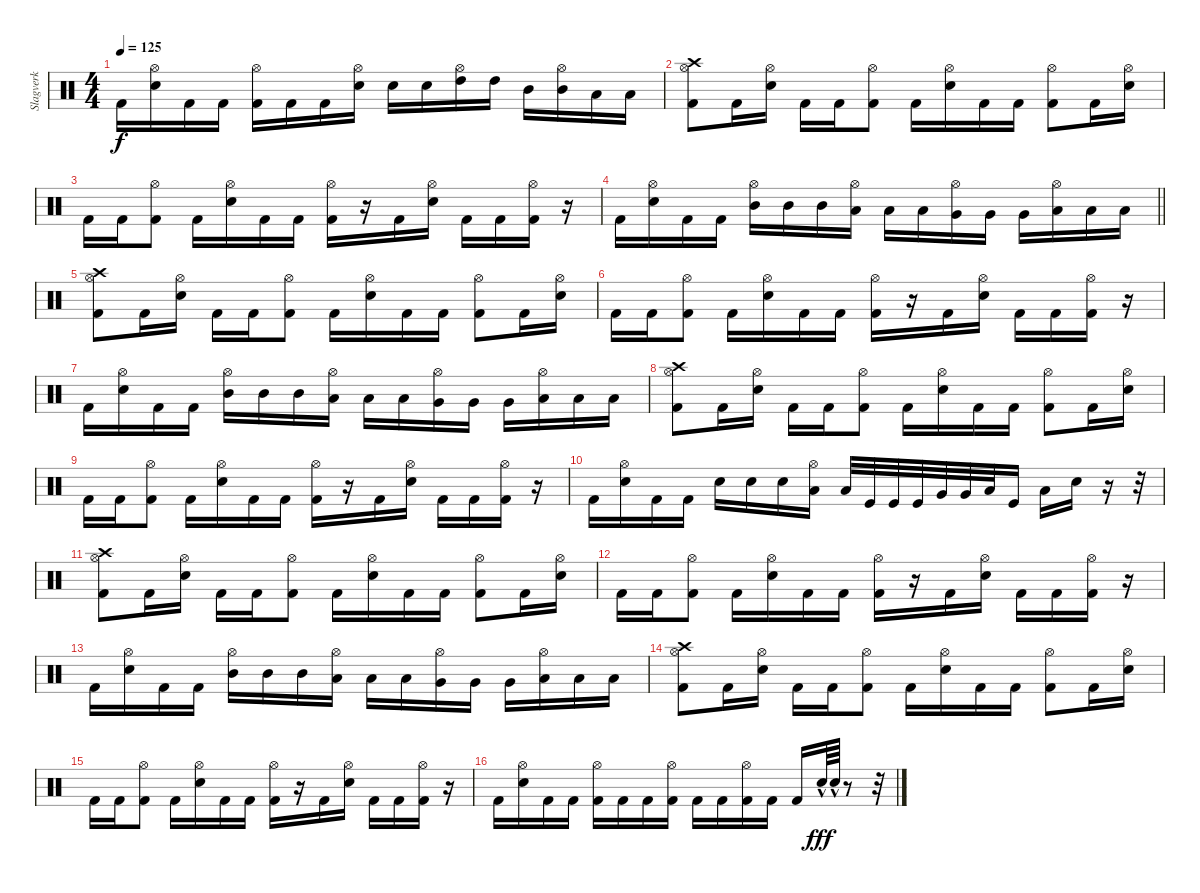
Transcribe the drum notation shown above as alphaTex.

\track ("Slagverk" "Slagverk") {instrument percussion}
\staff
\articulation defaults
\ts (4 4)
\tempo 125
\clef neutral
\ks c "Kick (hit) 2".16{dy f}
("Hi-Hat (open)" "Snare (hit) 2").16 "Kick (hit) 2".16 "Kick (hit) 2".16 ("Hi-Hat (open)" "Kick (hit) 2").16 "Kick (hit) 2".16 "Kick (hit) 2".16 ("Hi-Hat (open)" "Snare (hit) 2").16 "Snare (hit) 2".16 "Snare (hit) 2".16 ("Hi-Hat (open)" "High Tom (hit)").16 "High Tom (hit)".16 "Mid Tom (hit)".16 ("Hi-Hat (open)" "Mid Tom (hit)").16 "Low Tom (hit)".16 "Low Tom (hit)".16 |
("Hi-Hat (open)" "Kick (hit) 2" "Crash high (hit)").8 "Kick (hit) 2".16 ("Hi-Hat (open)" "Snare (hit) 2").16 "Kick (hit) 2".16 "Kick (hit) 2".16 ("Hi-Hat (open)" "Kick (hit) 2").8 "Kick (hit) 2".16 ("Hi-Hat (open)" "Snare (hit) 2").16 "Kick (hit) 2".16 "Kick (hit) 2".16 ("Hi-Hat (open)" "Kick (hit) 2").8 "Kick (hit) 2".16 ("Hi-Hat (open)" "Snare (hit) 2").16 |
"Kick (hit) 2".16 "Kick (hit) 2".16 ("Hi-Hat (open)" "Kick (hit) 2").8 "Kick (hit) 2".16 ("Hi-Hat (open)" "Snare (hit) 2").16 "Kick (hit) 2".16 "Kick (hit) 2".16 ("Hi-Hat (open)" "Kick (hit) 2").16 r.16 "Kick (hit) 2".16 ("Hi-Hat (open)" "Snare (hit) 2").16 "Kick (hit) 2".16 "Kick (hit) 2".16 ("Hi-Hat (open)" "Kick (hit) 2").16 r.16 |
\barLineRight lightlight "Kick (hit) 2".16
("Hi-Hat (open)" "Snare (hit) 2").16 "Kick (hit) 2".16 "Kick (hit) 2".16 ("Hi-Hat (open)" "Mid Tom (hit)").16 "Mid Tom (hit)".16 "Mid Tom (hit)".16 ("Hi-Hat (open)" "Low Tom (hit)").16 "Low Tom (hit)".16 "Low Tom (hit)".16 ("Hi-Hat (open)" "Very Low Tom (hit)").16 "Very Low Tom (hit)".16 "Very Low Tom (hit)".16 ("Hi-Hat (open)" "Low Floor Tom (hit)").16 "Low Floor Tom (hit)".16 "Low Floor Tom (hit)".16 |
("Hi-Hat (open)" "Kick (hit) 2" "Crash high (hit)").8 "Kick (hit) 2".16 ("Hi-Hat (open)" "Snare (hit) 2").16 "Kick (hit) 2".16 "Kick (hit) 2".16 ("Hi-Hat (open)" "Kick (hit) 2").8 "Kick (hit) 2".16 ("Hi-Hat (open)" "Snare (hit) 2").16 "Kick (hit) 2".16 "Kick (hit) 2".16 ("Hi-Hat (open)" "Kick (hit) 2").8 "Kick (hit) 2".16 ("Hi-Hat (open)" "Snare (hit) 2").16 |
"Kick (hit) 2".16 "Kick (hit) 2".16 ("Hi-Hat (open)" "Kick (hit) 2").8 "Kick (hit) 2".16 ("Hi-Hat (open)" "Snare (hit) 2").16 "Kick (hit) 2".16 "Kick (hit) 2".16 ("Hi-Hat (open)" "Kick (hit) 2").16 r.16 "Kick (hit) 2".16 ("Hi-Hat (open)" "Snare (hit) 2").16 "Kick (hit) 2".16 "Kick (hit) 2".16 ("Hi-Hat (open)" "Kick (hit) 2").16 r.16 |
"Kick (hit) 2".16 ("Hi-Hat (open)" "Snare (hit) 2").16 "Kick (hit) 2".16 "Kick (hit) 2".16 ("Hi-Hat (open)" "Mid Tom (hit)").16 "Mid Tom (hit)".16 "Mid Tom (hit)".16 ("Hi-Hat (open)" "Low Tom (hit)").16 "Low Tom (hit)".16 "Low Tom (hit)".16 ("Hi-Hat (open)" "Very Low Tom (hit)").16 "Very Low Tom (hit)".16 "Very Low Tom (hit)".16 ("Hi-Hat (open)" "Low Floor Tom (hit)").16 "Low Floor Tom (hit)".16 "Low Floor Tom (hit)".16 |
("Hi-Hat (open)" "Kick (hit) 2" "Crash high (hit)").8 "Kick (hit) 2".16 ("Hi-Hat (open)" "Snare (hit) 2").16 "Kick (hit) 2".16 "Kick (hit) 2".16 ("Hi-Hat (open)" "Kick (hit) 2").8 "Kick (hit) 2".16 ("Hi-Hat (open)" "Snare (hit) 2").16 "Kick (hit) 2".16 "Kick (hit) 2".16 ("Hi-Hat (open)" "Kick (hit) 2").8 "Kick (hit) 2".16 ("Hi-Hat (open)" "Snare (hit) 2").16 |
"Kick (hit) 2".16 "Kick (hit) 2".16 ("Hi-Hat (open)" "Kick (hit) 2").8 "Kick (hit) 2".16 ("Hi-Hat (open)" "Snare (hit) 2").16 "Kick (hit) 2".16 "Kick (hit) 2".16 ("Hi-Hat (open)" "Kick (hit) 2").16 r.16 "Kick (hit) 2".16 ("Hi-Hat (open)" "Snare (hit) 2").16 "Kick (hit) 2".16 "Kick (hit) 2".16 ("Hi-Hat (open)" "Kick (hit) 2").16 r.16 |
"Kick (hit) 2".16 ("Hi-Hat (open)" "Snare (hit) 2").16 "Kick (hit) 2".16 "Kick (hit) 2".16 "Snare (hit) 2".16 "Snare (hit) 2".16 "Snare (hit) 2".16 ("Hi-Hat (open)" "Low Tom (hit)").16 "Low Tom (hit)".32 "Kick (hit)".32 "Kick (hit)".32 "Kick (hit)".32 "Very Low Tom (hit)".32 "Very Low Tom (hit)".32 "Low Floor Tom (hit)".32 "Kick (hit)".16 "Low Floor Tom (hit)".16 "Snare (hit) 2".16 r.16 r.32 |
("Hi-Hat (open)" "Kick (hit) 2" "Crash high (hit)").8 "Kick (hit) 2".16 ("Hi-Hat (open)" "Snare (hit) 2").16 "Kick (hit) 2".16 "Kick (hit) 2".16 ("Hi-Hat (open)" "Kick (hit) 2").8 "Kick (hit) 2".16 ("Hi-Hat (open)" "Snare (hit) 2").16 "Kick (hit) 2".16 "Kick (hit) 2".16 ("Hi-Hat (open)" "Kick (hit) 2").8 "Kick (hit) 2".16 ("Hi-Hat (open)" "Snare (hit) 2").16 |
"Kick (hit) 2".16 "Kick (hit) 2".16 ("Hi-Hat (open)" "Kick (hit) 2").8 "Kick (hit) 2".16 ("Hi-Hat (open)" "Snare (hit) 2").16 "Kick (hit) 2".16 "Kick (hit) 2".16 ("Hi-Hat (open)" "Kick (hit) 2").16 r.16 "Kick (hit) 2".16 ("Hi-Hat (open)" "Snare (hit) 2").16 "Kick (hit) 2".16 "Kick (hit) 2".16 ("Hi-Hat (open)" "Kick (hit) 2").16 r.16 |
"Kick (hit) 2".16 ("Hi-Hat (open)" "Snare (hit) 2").16 "Kick (hit) 2".16 "Kick (hit) 2".16 ("Hi-Hat (open)" "Mid Tom (hit)").16 "Mid Tom (hit)".16 "Mid Tom (hit)".16 ("Hi-Hat (open)" "Low Tom (hit)").16 "Low Tom (hit)".16 "Low Tom (hit)".16 ("Hi-Hat (open)" "Very Low Tom (hit)").16 "Very Low Tom (hit)".16 "Very Low Tom (hit)".16 ("Hi-Hat (open)" "Low Floor Tom (hit)").16 "Low Floor Tom (hit)".16 "Low Floor Tom (hit)".16 |
("Hi-Hat (open)" "Kick (hit) 2" "Crash high (hit)").8 "Kick (hit) 2".16 ("Hi-Hat (open)" "Snare (hit) 2").16 "Kick (hit) 2".16 "Kick (hit) 2".16 ("Hi-Hat (open)" "Kick (hit) 2").8 "Kick (hit) 2".16 ("Hi-Hat (open)" "Snare (hit) 2").16 "Kick (hit) 2".16 "Kick (hit) 2".16 ("Hi-Hat (open)" "Kick (hit) 2").8 "Kick (hit) 2".16 ("Hi-Hat (open)" "Snare (hit) 2").16 |
"Kick (hit) 2".16 "Kick (hit) 2".16 ("Hi-Hat (open)" "Kick (hit) 2").8 "Kick (hit) 2".16 ("Hi-Hat (open)" "Snare (hit) 2").16 "Kick (hit) 2".16 "Kick (hit) 2".16 ("Hi-Hat (open)" "Kick (hit) 2").16 r.16 "Kick (hit) 2".16 ("Hi-Hat (open)" "Snare (hit) 2").16 "Kick (hit) 2".16 "Kick (hit) 2".16 ("Hi-Hat (open)" "Kick (hit) 2").16 r.16 |
"Kick (hit) 2".16 ("Hi-Hat (open)" "Snare (hit) 2").16 "Kick (hit) 2".16 "Kick (hit) 2".16 ("Hi-Hat (open)" "Kick (hit) 2").16 "Kick (hit) 2".16 "Kick (hit) 2".16 ("Hi-Hat (open)" "Kick (hit) 2").16 "Kick (hit) 2".16 "Kick (hit) 2".16 ("Hi-Hat (open)" "Kick (hit) 2").16 "Kick (hit) 2".16 "Kick (hit) 2".16 "Electric Snare (hit)"{hac}.64{dy fff} "Electric Snare (hit)"{hac}.64 r.8 r.32
